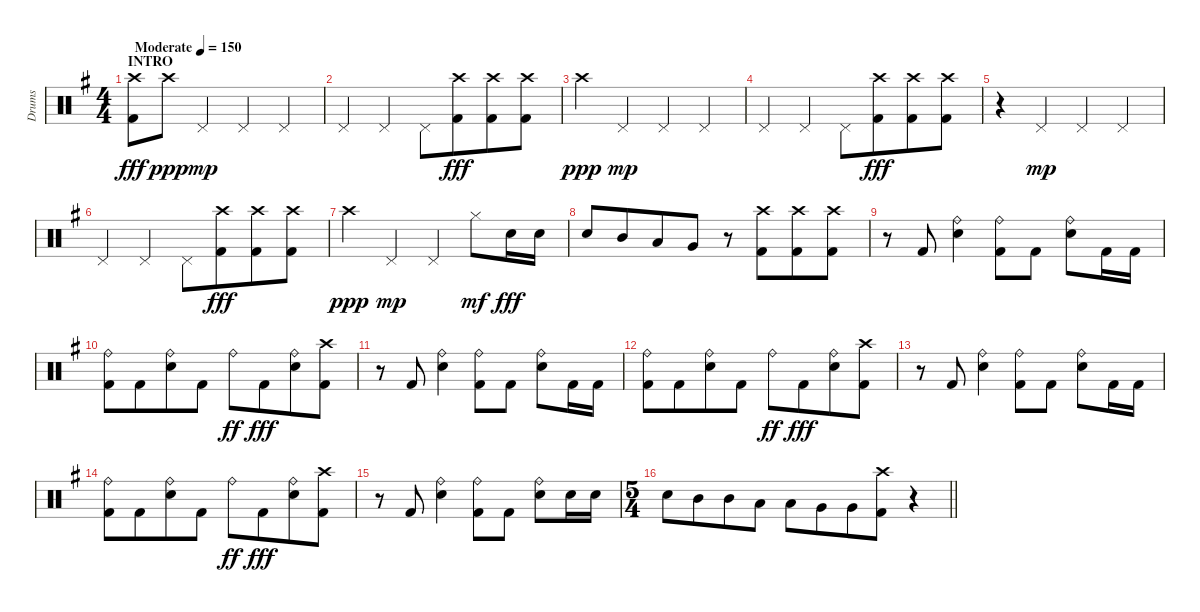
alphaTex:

\track ("Drums" "Drums") {instrument percussion}
\staff {score}
\articulation defaults
\ts (4 4)
\section ("" "INTRO")
\tempo (150 "Moderate")
\clef neutral
\ks eminor
("Crash high (hit)" "Kick (hit) 2").8{dy fff} "Crash high (hit)".8{dy ppp} "Pedal Hi-Hat (hit)".4{dy mp} "Pedal Hi-Hat (hit)".4 "Pedal Hi-Hat (hit)".4 |
"Pedal Hi-Hat (hit)".4 "Pedal Hi-Hat (hit)".4 "Pedal Hi-Hat (hit)".8 ("Crash high (hit)" "Kick (hit) 2").8{dy fff beam merge} ("Crash high (hit)" "Kick (hit) 2").8 ("Crash high (hit)" "Kick (hit) 2").8 |
"Crash high (hit)".4{dy ppp} "Pedal Hi-Hat (hit)".4{dy mp} "Pedal Hi-Hat (hit)".4 "Pedal Hi-Hat (hit)".4 |
"Pedal Hi-Hat (hit)".4 "Pedal Hi-Hat (hit)".4 "Pedal Hi-Hat (hit)".8 ("Crash high (hit)" "Kick (hit) 2").8{dy fff beam merge} ("Crash high (hit)" "Kick (hit) 2").8 ("Crash high (hit)" "Kick (hit) 2").8 |
r.4 "Pedal Hi-Hat (hit)".4{dy mp} "Pedal Hi-Hat (hit)".4 "Pedal Hi-Hat (hit)".4 |
"Pedal Hi-Hat (hit)".4 "Pedal Hi-Hat (hit)".4 "Pedal Hi-Hat (hit)".8 ("Crash high (hit)" "Kick (hit) 2").8{dy fff beam merge} ("Crash high (hit)" "Kick (hit) 2").8 ("Crash high (hit)" "Kick (hit) 2").8 |
"Crash high (hit)".4{dy ppp} "Pedal Hi-Hat (hit)".4{dy mp} "Pedal Hi-Hat (hit)".4 "Hi-Hat (closed)".8{dy mf} "Snare (hit) 2".16{dy fff} "Snare (hit) 2".16 |
"Snare (hit) 2".8 "Mid Tom (hit)".8{beam merge} "Low Tom (hit)".8 "Very Low Tom (hit)".8 r.8 ("Crash high (hit)" "Kick (hit) 2").8{beam merge} ("Crash high (hit)" "Kick (hit) 2").8 ("Crash high (hit)" "Kick (hit) 2").8 |
r.8 "Kick (hit) 2".8 ("Ride (bell)" "Snare (hit) 2").4 ("Ride (bell)" "Kick (hit) 2").8 "Kick (hit) 2".8 ("Ride (bell)" "Snare (hit) 2").8 "Kick (hit) 2".16 "Kick (hit) 2".16 |
("Ride (bell)" "Kick (hit) 2").8 "Kick (hit) 2".8{beam merge} ("Ride (bell)" "Snare (hit) 2").8 "Kick (hit) 2".8 "Ride (bell)".8{dy ff} "Kick (hit) 2".8{dy fff beam merge} ("Ride (bell)" "Snare (hit) 2").8 ("Crash high (hit)" "Kick (hit) 2").8 |
r.8 "Kick (hit) 2".8 ("Ride (bell)" "Snare (hit) 2").4 ("Ride (bell)" "Kick (hit) 2").8 "Kick (hit) 2".8 ("Ride (bell)" "Snare (hit) 2").8 "Kick (hit) 2".16 "Kick (hit) 2".16 |
("Ride (bell)" "Kick (hit) 2").8 "Kick (hit) 2".8{beam merge} ("Ride (bell)" "Snare (hit) 2").8 "Kick (hit) 2".8 "Ride (bell)".8{dy ff} "Kick (hit) 2".8{dy fff beam merge} ("Ride (bell)" "Snare (hit) 2").8 ("Crash high (hit)" "Kick (hit) 2").8 |
r.8 "Kick (hit) 2".8 ("Ride (bell)" "Snare (hit) 2").4 ("Ride (bell)" "Kick (hit) 2").8 "Kick (hit) 2".8 ("Ride (bell)" "Snare (hit) 2").8 "Kick (hit) 2".16 "Kick (hit) 2".16 |
("Ride (bell)" "Kick (hit) 2").8 "Kick (hit) 2".8{beam merge} ("Ride (bell)" "Snare (hit) 2").8 "Kick (hit) 2".8 "Ride (bell)".8{dy ff} "Kick (hit) 2".8{dy fff beam merge} ("Ride (bell)" "Snare (hit) 2").8 ("Crash high (hit)" "Kick (hit) 2").8 |
r.8 "Kick (hit) 2".8 ("Ride (bell)" "Snare (hit) 2").4 ("Ride (bell)" "Kick (hit) 2").8 "Kick (hit) 2".8 ("Ride (bell)" "Snare (hit) 2").8 "Snare (hit) 2".16 "Snare (hit) 2".16 |
\ts (5 4)
\barLineRight lightlight "Snare (hit) 2".8{beam merge} "Mid Tom (hit)".8{beam merge} "Mid Tom (hit)".8{beam merge} "Low Tom (hit)".8{beam split} "Low Tom (hit)".8{beam merge} "Very Low Tom (hit)".8{beam merge} "Very Low Tom (hit)".8
("Crash high (hit)" "Kick (hit) 2").8 r.4
